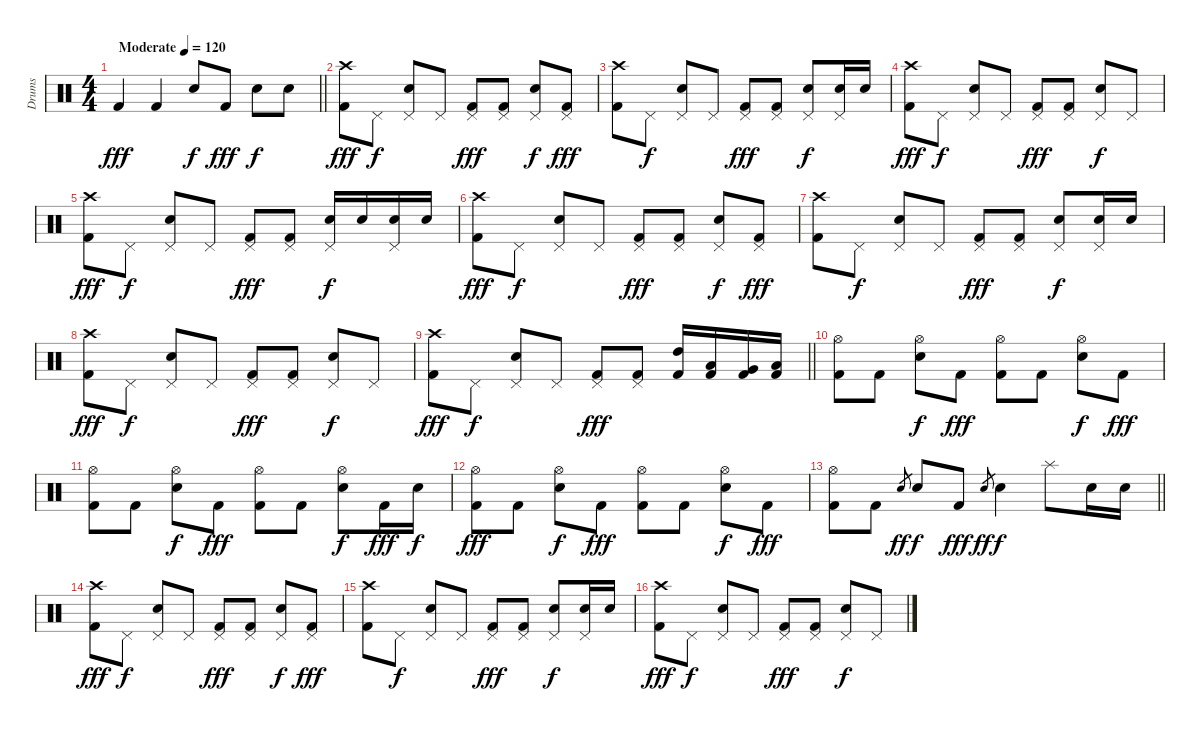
\track ("Drums" "Drums") {instrument percussion}
\staff {score}
\articulation defaults
\ts (4 4)
\tempo (120 "Moderate")
\clef neutral
\barLineRight lightlight
\ks c "Kick (hit) 2".4{dy fff} "Kick (hit) 2".4 "Snare (hit) 2".8{dy f} "Kick (hit) 2".8{dy fff} "Snare (hit) 2".8{dy f} "Snare (hit) 2".8
|
\section ("" "")
("Crash high (hit)" "Kick (hit) 2").8{dy fff} "Pedal Hi-Hat (hit)".8{dy f} ("Pedal Hi-Hat (hit)" "Snare (hit) 2").8 "Pedal Hi-Hat (hit)".8 ("Pedal Hi-Hat (hit)" "Kick (hit) 2").8{dy fff} ("Pedal Hi-Hat (hit)" "Kick (hit) 2").8 ("Pedal Hi-Hat (hit)" "Snare (hit) 2").8{dy f} ("Pedal Hi-Hat (hit)" "Kick (hit) 2").8{dy fff} |
("Crash high (hit)" "Kick (hit) 2").8 "Pedal Hi-Hat (hit)".8{dy f} ("Pedal Hi-Hat (hit)" "Snare (hit) 2").8 "Pedal Hi-Hat (hit)".8 ("Pedal Hi-Hat (hit)" "Kick (hit) 2").8{dy fff} ("Pedal Hi-Hat (hit)" "Kick (hit) 2").8 ("Pedal Hi-Hat (hit)" "Snare (hit) 2").8{dy f} ("Pedal Hi-Hat (hit)" "Snare (hit) 2").16 "Snare (hit) 2".16 |
("Crash high (hit)" "Kick (hit) 2").8{dy fff} "Pedal Hi-Hat (hit)".8{dy f} ("Pedal Hi-Hat (hit)" "Snare (hit) 2").8 "Pedal Hi-Hat (hit)".8 ("Pedal Hi-Hat (hit)" "Kick (hit) 2").8{dy fff} ("Pedal Hi-Hat (hit)" "Kick (hit) 2").8 ("Pedal Hi-Hat (hit)" "Snare (hit) 2").8{dy f} "Pedal Hi-Hat (hit)".8 |
("Crash high (hit)" "Kick (hit) 2").8{dy fff} "Pedal Hi-Hat (hit)".8{dy f} ("Pedal Hi-Hat (hit)" "Snare (hit) 2").8 "Pedal Hi-Hat (hit)".8 ("Pedal Hi-Hat (hit)" "Kick (hit) 2").8{dy fff} ("Pedal Hi-Hat (hit)" "Kick (hit) 2").8 ("Pedal Hi-Hat (hit)" "Snare (hit) 2").16{dy f} "Snare (hit) 2".16 ("Pedal Hi-Hat (hit)" "Snare (hit) 2").16 "Snare (hit) 2".16 |
("Crash high (hit)" "Kick (hit) 2").8{dy fff} "Pedal Hi-Hat (hit)".8{dy f} ("Pedal Hi-Hat (hit)" "Snare (hit) 2").8 "Pedal Hi-Hat (hit)".8 ("Pedal Hi-Hat (hit)" "Kick (hit) 2").8{dy fff} ("Pedal Hi-Hat (hit)" "Kick (hit) 2").8 ("Pedal Hi-Hat (hit)" "Snare (hit) 2").8{dy f} ("Pedal Hi-Hat (hit)" "Kick (hit) 2").8{dy fff} |
("Crash high (hit)" "Kick (hit) 2").8 "Pedal Hi-Hat (hit)".8{dy f} ("Pedal Hi-Hat (hit)" "Snare (hit) 2").8 "Pedal Hi-Hat (hit)".8 ("Pedal Hi-Hat (hit)" "Kick (hit) 2").8{dy fff} ("Pedal Hi-Hat (hit)" "Kick (hit) 2").8 ("Pedal Hi-Hat (hit)" "Snare (hit) 2").8{dy f} ("Pedal Hi-Hat (hit)" "Snare (hit) 2").16 "Snare (hit) 2".16 |
("Crash high (hit)" "Kick (hit) 2").8{dy fff} "Pedal Hi-Hat (hit)".8{dy f} ("Pedal Hi-Hat (hit)" "Snare (hit) 2").8 "Pedal Hi-Hat (hit)".8 ("Pedal Hi-Hat (hit)" "Kick (hit) 2").8{dy fff} ("Pedal Hi-Hat (hit)" "Kick (hit) 2").8 ("Pedal Hi-Hat (hit)" "Snare (hit) 2").8{dy f} "Pedal Hi-Hat (hit)".8 |
\barLineRight lightlight
("Crash high (hit)" "Kick (hit) 2").8{dy fff} "Pedal Hi-Hat (hit)".8{dy f} ("Pedal Hi-Hat (hit)" "Snare (hit) 2").8 "Pedal Hi-Hat (hit)".8 ("Pedal Hi-Hat (hit)" "Kick (hit) 2").8{dy fff} ("Pedal Hi-Hat (hit)" "Kick (hit) 2").8 ("High Tom (hit)" "Kick (hit) 2").16 ("Low Tom (hit)" "Kick (hit) 2").16 ("Very Low Tom (hit)" "Kick (hit) 2").16 ("Low Floor Tom (hit)" "Kick (hit) 2").16 |
\section ("" "")
("Hi-Hat (open)" "Kick (hit) 2").8 "Kick (hit) 2".8 ("Hi-Hat (open)" "Snare (hit) 2").8{dy f} "Kick (hit) 2".8{dy fff} ("Hi-Hat (open)" "Kick (hit) 2").8 "Kick (hit) 2".8 ("Hi-Hat (open)" "Snare (hit) 2").8{dy f} "Kick (hit) 2".8{dy fff} |
("Hi-Hat (open)" "Kick (hit) 2").8 "Kick (hit) 2".8 ("Hi-Hat (open)" "Snare (hit) 2").8{dy f} "Kick (hit) 2".8{dy fff} ("Hi-Hat (open)" "Kick (hit) 2").8 "Kick (hit) 2".8 ("Hi-Hat (open)" "Snare (hit) 2").8{dy f} "Kick (hit) 2".16{dy fff} "Snare (hit) 2".16{dy f} |
("Hi-Hat (open)" "Kick (hit) 2").8{dy fff} "Kick (hit) 2".8 ("Hi-Hat (open)" "Snare (hit) 2").8{dy f} "Kick (hit) 2".8{dy fff} ("Hi-Hat (open)" "Kick (hit) 2").8 "Kick (hit) 2".8 ("Hi-Hat (open)" "Snare (hit) 2").8{dy f} "Kick (hit) 2".8{dy fff} |
\barLineRight lightlight
("Hi-Hat (open)" "Kick (hit) 2").8 "Kick (hit) 2".8 "Snare (hit) 2".8{gr dy ff} "Snare (hit) 2".8{dy f} "Kick (hit) 2".8{dy fff} "Snare (hit) 2".8{gr dy ff} "Snare (hit) 2".4{dy f} "Splash (hit)".8 "Snare (hit) 2".16 "Snare (hit) 2".16 |
\section ("" "")
("Crash high (hit)" "Kick (hit) 2").8{dy fff} "Pedal Hi-Hat (hit)".8{dy f} ("Pedal Hi-Hat (hit)" "Snare (hit) 2").8 "Pedal Hi-Hat (hit)".8 ("Pedal Hi-Hat (hit)" "Kick (hit) 2").8{dy fff} ("Pedal Hi-Hat (hit)" "Kick (hit) 2").8 ("Pedal Hi-Hat (hit)" "Snare (hit) 2").8{dy f} ("Pedal Hi-Hat (hit)" "Kick (hit) 2").8{dy fff} |
("Crash high (hit)" "Kick (hit) 2").8 "Pedal Hi-Hat (hit)".8{dy f} ("Pedal Hi-Hat (hit)" "Snare (hit) 2").8 "Pedal Hi-Hat (hit)".8 ("Pedal Hi-Hat (hit)" "Kick (hit) 2").8{dy fff} ("Pedal Hi-Hat (hit)" "Kick (hit) 2").8 ("Pedal Hi-Hat (hit)" "Snare (hit) 2").8{dy f} ("Pedal Hi-Hat (hit)" "Snare (hit) 2").16 "Snare (hit) 2".16 |
("Crash high (hit)" "Kick (hit) 2").8{dy fff} "Pedal Hi-Hat (hit)".8{dy f} ("Pedal Hi-Hat (hit)" "Snare (hit) 2").8 "Pedal Hi-Hat (hit)".8 ("Pedal Hi-Hat (hit)" "Kick (hit) 2").8{dy fff} ("Pedal Hi-Hat (hit)" "Kick (hit) 2").8 ("Pedal Hi-Hat (hit)" "Snare (hit) 2").8{dy f} "Pedal Hi-Hat (hit)".8
